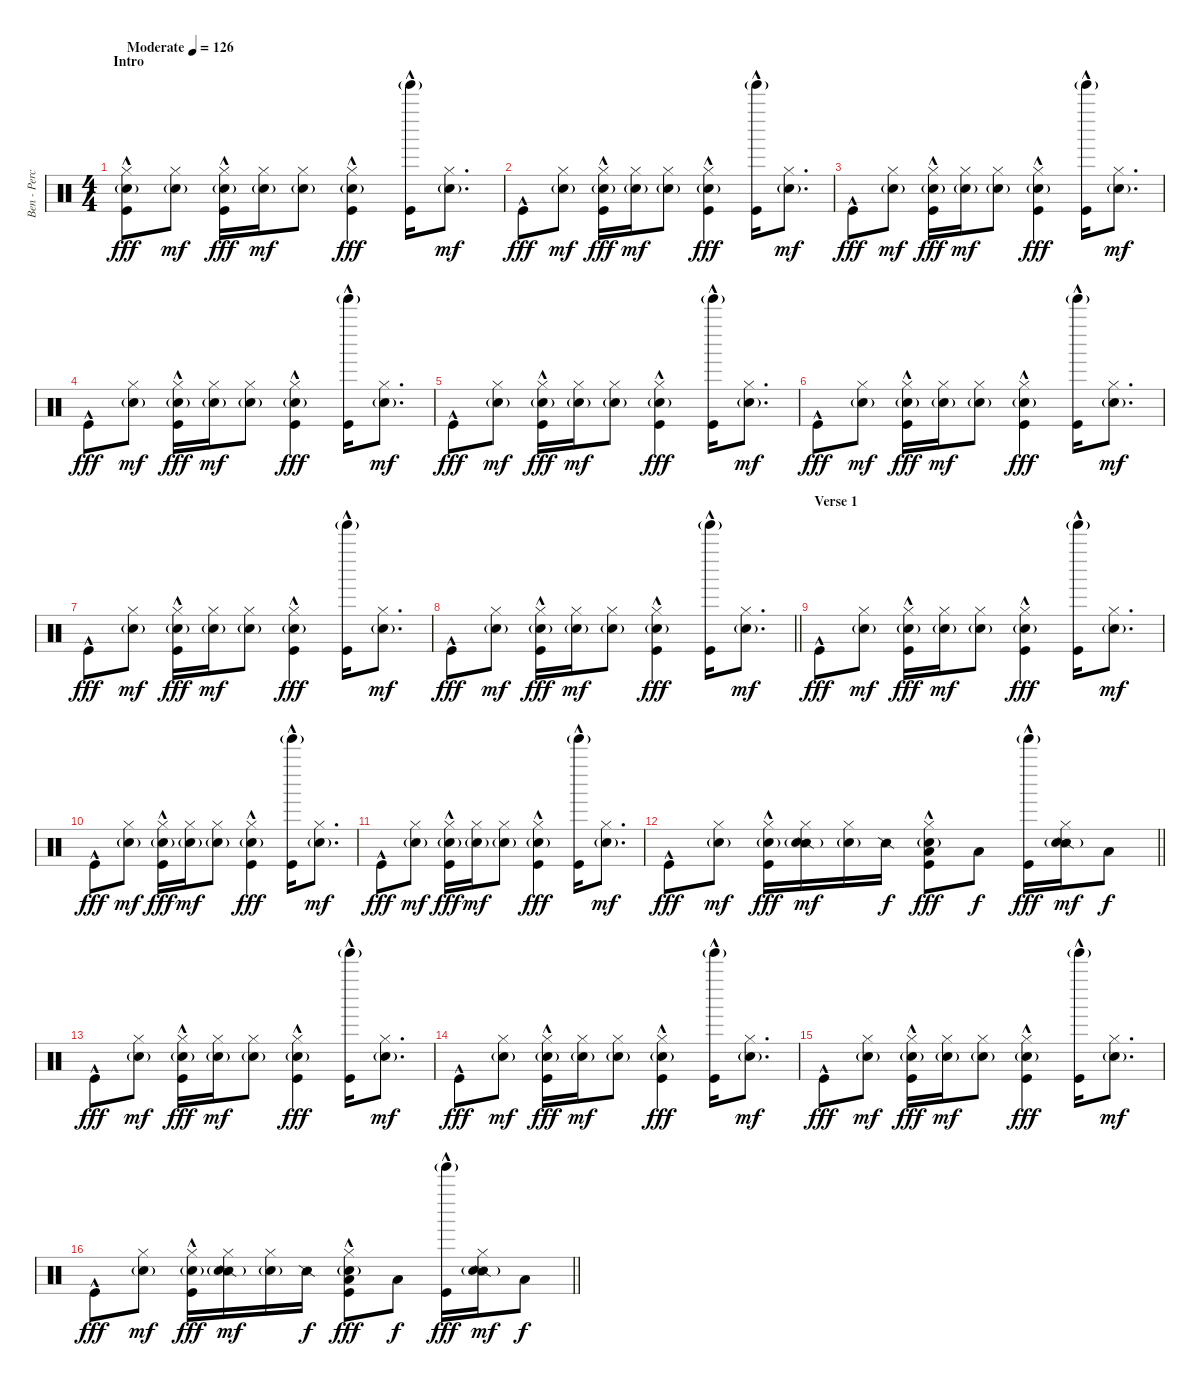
\track ("Ben - Percussion" "Ben - Perc") {instrument percussion}
\staff {score}
\articulation defaults
\ts (4 4)
\section ("" "Intro")
\tempo (126 "Moderate")
\clef neutral
\ks c
("Hi-Hat (closed)" "Snare (hit) 2"{g} "Kick (hit)"{hac}).8{dy fff} ("Hi-Hat (closed)" "Snare (hit) 2"{g}).8{dy mf} ("Hi-Hat (closed)" "Snare (hit) 2"{g} "Kick (hit)"{hac}).16{dy fff} ("Hi-Hat (closed)" "Snare (hit) 2"{g}).16{dy mf} ("Hi-Hat (closed)" "Snare (hit) 2"{g}).8 ("Hi-Hat (closed)" "Snare (hit) 2"{g} "Kick (hit)"{hac}).4{dy fff} ("Tinkle Bell (hit)"{g} "Kick (hit)"{hac}).16 ("Hi-Hat (closed)" "Snare (hit) 2"{g}).8{d dy mf} |
"Kick (hit)"{hac}.8{dy fff} ("Hi-Hat (closed)" "Snare (hit) 2"{g}).8{dy mf} ("Hi-Hat (closed)" "Snare (hit) 2"{g} "Kick (hit)"{hac}).16{dy fff} ("Hi-Hat (closed)" "Snare (hit) 2"{g}).16{dy mf} ("Hi-Hat (closed)" "Snare (hit) 2"{g}).8 ("Hi-Hat (closed)" "Snare (hit) 2"{g} "Kick (hit)"{hac}).4{dy fff} ("Tinkle Bell (hit)"{g} "Kick (hit)"{hac}).16 ("Hi-Hat (closed)" "Snare (hit) 2"{g}).8{d dy mf} |
"Kick (hit)"{hac}.8{dy fff} ("Hi-Hat (closed)" "Snare (hit) 2"{g}).8{dy mf} ("Hi-Hat (closed)" "Snare (hit) 2"{g} "Kick (hit)"{hac}).16{dy fff} ("Hi-Hat (closed)" "Snare (hit) 2"{g}).16{dy mf} ("Hi-Hat (closed)" "Snare (hit) 2"{g}).8 ("Hi-Hat (closed)" "Snare (hit) 2"{g} "Kick (hit)"{hac}).4{dy fff} ("Tinkle Bell (hit)"{g} "Kick (hit)"{hac}).16 ("Hi-Hat (closed)" "Snare (hit) 2"{g}).8{d dy mf} |
"Kick (hit)"{hac}.8{dy fff} ("Hi-Hat (closed)" "Snare (hit) 2"{g}).8{dy mf} ("Hi-Hat (closed)" "Snare (hit) 2"{g} "Kick (hit)"{hac}).16{dy fff} ("Hi-Hat (closed)" "Snare (hit) 2"{g}).16{dy mf} ("Hi-Hat (closed)" "Snare (hit) 2"{g}).8 ("Hi-Hat (closed)" "Snare (hit) 2"{g} "Kick (hit)"{hac}).4{dy fff} ("Tinkle Bell (hit)"{g} "Kick (hit)"{hac}).16 ("Hi-Hat (closed)" "Snare (hit) 2"{g}).8{d dy mf} |
"Kick (hit)"{hac}.8{dy fff} ("Hi-Hat (closed)" "Snare (hit) 2"{g}).8{dy mf} ("Hi-Hat (closed)" "Snare (hit) 2"{g} "Kick (hit)"{hac}).16{dy fff} ("Hi-Hat (closed)" "Snare (hit) 2"{g}).16{dy mf} ("Hi-Hat (closed)" "Snare (hit) 2"{g}).8 ("Hi-Hat (closed)" "Snare (hit) 2"{g} "Kick (hit)"{hac}).4{dy fff} ("Tinkle Bell (hit)"{g} "Kick (hit)"{hac}).16 ("Hi-Hat (closed)" "Snare (hit) 2"{g}).8{d dy mf} |
"Kick (hit)"{hac}.8{dy fff} ("Hi-Hat (closed)" "Snare (hit) 2"{g}).8{dy mf} ("Hi-Hat (closed)" "Snare (hit) 2"{g} "Kick (hit)"{hac}).16{dy fff} ("Hi-Hat (closed)" "Snare (hit) 2"{g}).16{dy mf} ("Hi-Hat (closed)" "Snare (hit) 2"{g}).8 ("Hi-Hat (closed)" "Snare (hit) 2"{g} "Kick (hit)"{hac}).4{dy fff} ("Tinkle Bell (hit)"{g} "Kick (hit)"{hac}).16 ("Hi-Hat (closed)" "Snare (hit) 2"{g}).8{d dy mf} |
"Kick (hit)"{hac}.8{dy fff} ("Hi-Hat (closed)" "Snare (hit) 2"{g}).8{dy mf} ("Hi-Hat (closed)" "Snare (hit) 2"{g} "Kick (hit)"{hac}).16{dy fff} ("Hi-Hat (closed)" "Snare (hit) 2"{g}).16{dy mf} ("Hi-Hat (closed)" "Snare (hit) 2"{g}).8 ("Hi-Hat (closed)" "Snare (hit) 2"{g} "Kick (hit)"{hac}).4{dy fff} ("Tinkle Bell (hit)"{g} "Kick (hit)"{hac}).16 ("Hi-Hat (closed)" "Snare (hit) 2"{g}).8{d dy mf} |
\barLineRight lightlight "Kick (hit)"{hac}.8{dy fff}
("Hi-Hat (closed)" "Snare (hit) 2"{g}).8{dy mf} ("Hi-Hat (closed)" "Snare (hit) 2"{g} "Kick (hit)"{hac}).16{dy fff} ("Hi-Hat (closed)" "Snare (hit) 2"{g}).16{dy mf} ("Hi-Hat (closed)" "Snare (hit) 2"{g}).8 ("Hi-Hat (closed)" "Snare (hit) 2"{g} "Kick (hit)"{hac}).4{dy fff} ("Tinkle Bell (hit)"{g} "Kick (hit)"{hac}).16 ("Hi-Hat (closed)" "Snare (hit) 2"{g}).8{d dy mf} |
\section ("" "Verse 1")
"Kick (hit)"{hac}.8{dy fff} ("Hi-Hat (closed)" "Snare (hit) 2"{g}).8{dy mf} ("Hi-Hat (closed)" "Snare (hit) 2"{g} "Kick (hit)"{hac}).16{dy fff} ("Hi-Hat (closed)" "Snare (hit) 2"{g}).16{dy mf} ("Hi-Hat (closed)" "Snare (hit) 2"{g}).8 ("Hi-Hat (closed)" "Snare (hit) 2"{g} "Kick (hit)"{hac}).4{dy fff} ("Tinkle Bell (hit)"{g} "Kick (hit)"{hac}).16 ("Hi-Hat (closed)" "Snare (hit) 2"{g}).8{d dy mf} |
"Kick (hit)"{hac}.8{dy fff} ("Hi-Hat (closed)" "Snare (hit) 2"{g}).8{dy mf} ("Hi-Hat (closed)" "Snare (hit) 2"{g} "Kick (hit)"{hac}).16{dy fff} ("Hi-Hat (closed)" "Snare (hit) 2"{g}).16{dy mf} ("Hi-Hat (closed)" "Snare (hit) 2"{g}).8 ("Hi-Hat (closed)" "Snare (hit) 2"{g} "Kick (hit)"{hac}).4{dy fff} ("Tinkle Bell (hit)"{g} "Kick (hit)"{hac}).16 ("Hi-Hat (closed)" "Snare (hit) 2"{g}).8{d dy mf} |
"Kick (hit)"{hac}.8{dy fff} ("Hi-Hat (closed)" "Snare (hit) 2"{g}).8{dy mf} ("Hi-Hat (closed)" "Snare (hit) 2"{g} "Kick (hit)"{hac}).16{dy fff} ("Hi-Hat (closed)" "Snare (hit) 2"{g}).16{dy mf} ("Hi-Hat (closed)" "Snare (hit) 2"{g}).8 ("Hi-Hat (closed)" "Snare (hit) 2"{g} "Kick (hit)"{hac}).4{dy fff} ("Tinkle Bell (hit)"{g} "Kick (hit)"{hac}).16 ("Hi-Hat (closed)" "Snare (hit) 2"{g}).8{d dy mf} |
\barLineRight lightlight "Kick (hit)"{hac}.8{dy fff}
("Hi-Hat (closed)" "Snare (hit) 2"{g}).8{dy mf} ("Hi-Hat (closed)" "Snare (hit) 2"{g} "Kick (hit)"{hac}).16{dy fff} ("Hi-Hat (closed)" "Snare (side stick) 2" "Snare (hit) 2"{g}).16{dy mf} ("Hi-Hat (closed)" "Snare (hit) 2"{g}).16 "Snare (side stick) 2".16{dy f} ("Hi-Hat (closed)" "Low Tom (hit)" "Snare (hit) 2"{g} "Kick (hit)"{hac}).8{dy fff} "Low Tom (hit)".8{dy f} ("Tinkle Bell (hit)"{g} "Kick (hit)"{hac}).16{dy fff} ("Hi-Hat (closed)" "Snare (side stick) 2" "Snare (hit) 2"{g}).16{dy mf} "Low Tom (hit)".8{dy f} |
"Kick (hit)"{hac}.8{dy fff} ("Hi-Hat (closed)" "Snare (hit) 2"{g}).8{dy mf} ("Hi-Hat (closed)" "Snare (hit) 2"{g} "Kick (hit)"{hac}).16{dy fff} ("Hi-Hat (closed)" "Snare (hit) 2"{g}).16{dy mf} ("Hi-Hat (closed)" "Snare (hit) 2"{g}).8 ("Hi-Hat (closed)" "Snare (hit) 2"{g} "Kick (hit)"{hac}).4{dy fff} ("Tinkle Bell (hit)"{g} "Kick (hit)"{hac}).16 ("Hi-Hat (closed)" "Snare (hit) 2"{g}).8{d dy mf} |
"Kick (hit)"{hac}.8{dy fff} ("Hi-Hat (closed)" "Snare (hit) 2"{g}).8{dy mf} ("Hi-Hat (closed)" "Snare (hit) 2"{g} "Kick (hit)"{hac}).16{dy fff} ("Hi-Hat (closed)" "Snare (hit) 2"{g}).16{dy mf} ("Hi-Hat (closed)" "Snare (hit) 2"{g}).8 ("Hi-Hat (closed)" "Snare (hit) 2"{g} "Kick (hit)"{hac}).4{dy fff} ("Tinkle Bell (hit)"{g} "Kick (hit)"{hac}).16 ("Hi-Hat (closed)" "Snare (hit) 2"{g}).8{d dy mf} |
"Kick (hit)"{hac}.8{dy fff} ("Hi-Hat (closed)" "Snare (hit) 2"{g}).8{dy mf} ("Hi-Hat (closed)" "Snare (hit) 2"{g} "Kick (hit)"{hac}).16{dy fff} ("Hi-Hat (closed)" "Snare (hit) 2"{g}).16{dy mf} ("Hi-Hat (closed)" "Snare (hit) 2"{g}).8 ("Hi-Hat (closed)" "Snare (hit) 2"{g} "Kick (hit)"{hac}).4{dy fff} ("Tinkle Bell (hit)"{g} "Kick (hit)"{hac}).16 ("Hi-Hat (closed)" "Snare (hit) 2"{g}).8{d dy mf} |
\barLineRight lightlight "Kick (hit)"{hac}.8{dy fff}
("Hi-Hat (closed)" "Snare (hit) 2"{g}).8{dy mf} ("Hi-Hat (closed)" "Snare (hit) 2"{g} "Kick (hit)"{hac}).16{dy fff} ("Hi-Hat (closed)" "Snare (side stick) 2" "Snare (hit) 2"{g}).16{dy mf} ("Hi-Hat (closed)" "Snare (hit) 2"{g}).16 "Snare (side stick) 2".16{dy f} ("Hi-Hat (closed)" "Low Tom (hit)" "Snare (hit) 2"{g} "Kick (hit)"{hac}).8{dy fff} "Low Tom (hit)".8{dy f} ("Tinkle Bell (hit)"{g} "Kick (hit)"{hac}).16{dy fff} ("Hi-Hat (closed)" "Snare (side stick) 2" "Snare (hit) 2"{g}).16{dy mf} "Low Tom (hit)".8{dy f}
